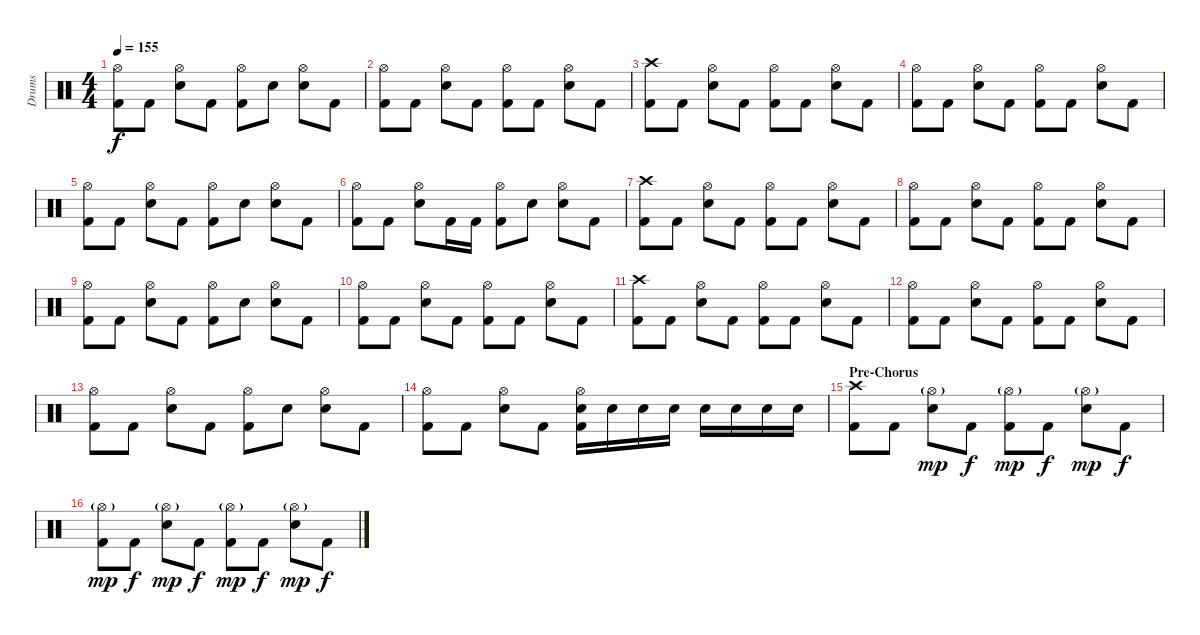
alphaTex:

\track ("Drums" "Drums") {instrument percussion}
\staff {score}
\articulation defaults
\ts (4 4)
\tempo 155
\clef neutral
\ks c
("Hi-Hat (open)" "Kick (hit) 2").8{dy f} "Kick (hit) 2".8 ("Hi-Hat (open)" "Electric Snare (hit)").8 "Kick (hit) 2".8 ("Hi-Hat (open)" "Kick (hit) 2").8 "Electric Snare (hit)".8 ("Hi-Hat (open)" "Electric Snare (hit)").8 "Kick (hit) 2".8 |
("Hi-Hat (open)" "Kick (hit) 2").8 "Kick (hit) 2".8 ("Hi-Hat (open)" "Electric Snare (hit)").8 "Kick (hit) 2".8 ("Hi-Hat (open)" "Kick (hit) 2").8 "Kick (hit) 2".8 ("Hi-Hat (open)" "Electric Snare (hit)").8 "Kick (hit) 2".8 |
("Crash high (hit)" "Kick (hit) 2").8 "Kick (hit) 2".8 ("Hi-Hat (open)" "Electric Snare (hit)").8 "Kick (hit) 2".8 ("Hi-Hat (open)" "Kick (hit) 2").8 "Kick (hit) 2".8 ("Hi-Hat (open)" "Electric Snare (hit)").8 "Kick (hit) 2".8 |
("Hi-Hat (open)" "Kick (hit) 2").8 "Kick (hit) 2".8 ("Hi-Hat (open)" "Electric Snare (hit)").8 "Kick (hit) 2".8 ("Hi-Hat (open)" "Kick (hit) 2").8 "Kick (hit) 2".8 ("Hi-Hat (open)" "Electric Snare (hit)").8 "Kick (hit) 2".8 |
("Hi-Hat (open)" "Kick (hit) 2").8 "Kick (hit) 2".8 ("Hi-Hat (open)" "Electric Snare (hit)").8 "Kick (hit) 2".8 ("Hi-Hat (open)" "Kick (hit) 2").8 "Electric Snare (hit)".8 ("Hi-Hat (open)" "Electric Snare (hit)").8 "Kick (hit) 2".8 |
("Hi-Hat (open)" "Kick (hit) 2").8 "Kick (hit) 2".8 ("Hi-Hat (open)" "Electric Snare (hit)").8 "Kick (hit) 2".16 "Kick (hit) 2".16 ("Hi-Hat (open)" "Kick (hit) 2").8 "Electric Snare (hit)".8 ("Hi-Hat (open)" "Electric Snare (hit)").8 "Kick (hit) 2".8 |
("Crash high (hit)" "Kick (hit) 2").8 "Kick (hit) 2".8 ("Hi-Hat (open)" "Electric Snare (hit)").8 "Kick (hit) 2".8 ("Hi-Hat (open)" "Kick (hit) 2").8 "Kick (hit) 2".8 ("Hi-Hat (open)" "Electric Snare (hit)").8 "Kick (hit) 2".8 |
("Hi-Hat (open)" "Kick (hit) 2").8 "Kick (hit) 2".8 ("Hi-Hat (open)" "Electric Snare (hit)").8 "Kick (hit) 2".8 ("Hi-Hat (open)" "Kick (hit) 2").8 "Kick (hit) 2".8 ("Hi-Hat (open)" "Electric Snare (hit)").8 "Kick (hit) 2".8 |
("Hi-Hat (open)" "Kick (hit) 2").8 "Kick (hit) 2".8 ("Hi-Hat (open)" "Electric Snare (hit)").8 "Kick (hit) 2".8 ("Hi-Hat (open)" "Kick (hit) 2").8 "Electric Snare (hit)".8 ("Hi-Hat (open)" "Electric Snare (hit)").8 "Kick (hit) 2".8 |
("Hi-Hat (open)" "Kick (hit) 2").8 "Kick (hit) 2".8 ("Hi-Hat (open)" "Electric Snare (hit)").8 "Kick (hit) 2".8 ("Hi-Hat (open)" "Kick (hit) 2").8 "Kick (hit) 2".8 ("Hi-Hat (open)" "Electric Snare (hit)").8 "Kick (hit) 2".8 |
("Crash high (hit)" "Kick (hit) 2").8 "Kick (hit) 2".8 ("Hi-Hat (open)" "Electric Snare (hit)").8 "Kick (hit) 2".8 ("Hi-Hat (open)" "Kick (hit) 2").8 "Kick (hit) 2".8 ("Hi-Hat (open)" "Electric Snare (hit)").8 "Kick (hit) 2".8 |
("Hi-Hat (open)" "Kick (hit) 2").8 "Kick (hit) 2".8 ("Hi-Hat (open)" "Electric Snare (hit)").8 "Kick (hit) 2".8 ("Hi-Hat (open)" "Kick (hit) 2").8 "Kick (hit) 2".8 ("Hi-Hat (open)" "Electric Snare (hit)").8 "Kick (hit) 2".8 |
("Hi-Hat (open)" "Kick (hit) 2").8 "Kick (hit) 2".8 ("Hi-Hat (open)" "Electric Snare (hit)").8 "Kick (hit) 2".8 ("Hi-Hat (open)" "Kick (hit) 2").8 "Electric Snare (hit)".8 ("Hi-Hat (open)" "Electric Snare (hit)").8 "Kick (hit) 2".8 |
("Hi-Hat (open)" "Kick (hit) 2").8 "Kick (hit) 2".8 ("Hi-Hat (open)" "Electric Snare (hit)").8 "Kick (hit) 2".8 ("Hi-Hat (open)" "Electric Snare (hit)" "Kick (hit) 2").16 "Electric Snare (hit)".16 "Electric Snare (hit)".16 "Electric Snare (hit)".16 "Electric Snare (hit)".16 "Electric Snare (hit)".16 "Electric Snare (hit)".16 "Electric Snare (hit)".16 |
\section ("" "Pre-Chorus")
("Crash high (hit)" "Kick (hit) 2").8 "Kick (hit) 2".8 ("Hi-Hat (open)"{g} "Electric Snare (hit)").8{dy mp} "Kick (hit) 2".8{dy f} ("Hi-Hat (open)"{g} "Kick (hit) 2").8{dy mp} "Kick (hit) 2".8{dy f} ("Hi-Hat (open)"{g} "Electric Snare (hit)").8{dy mp} "Kick (hit) 2".8{dy f} |
("Hi-Hat (open)"{g} "Kick (hit) 2").8{dy mp} "Kick (hit) 2".8{dy f} ("Hi-Hat (open)"{g} "Electric Snare (hit)").8{dy mp} "Kick (hit) 2".8{dy f} ("Hi-Hat (open)"{g} "Kick (hit) 2").8{dy mp} "Kick (hit) 2".8{dy f} ("Hi-Hat (open)"{g} "Electric Snare (hit)").8{dy mp} "Kick (hit) 2".8{dy f}
